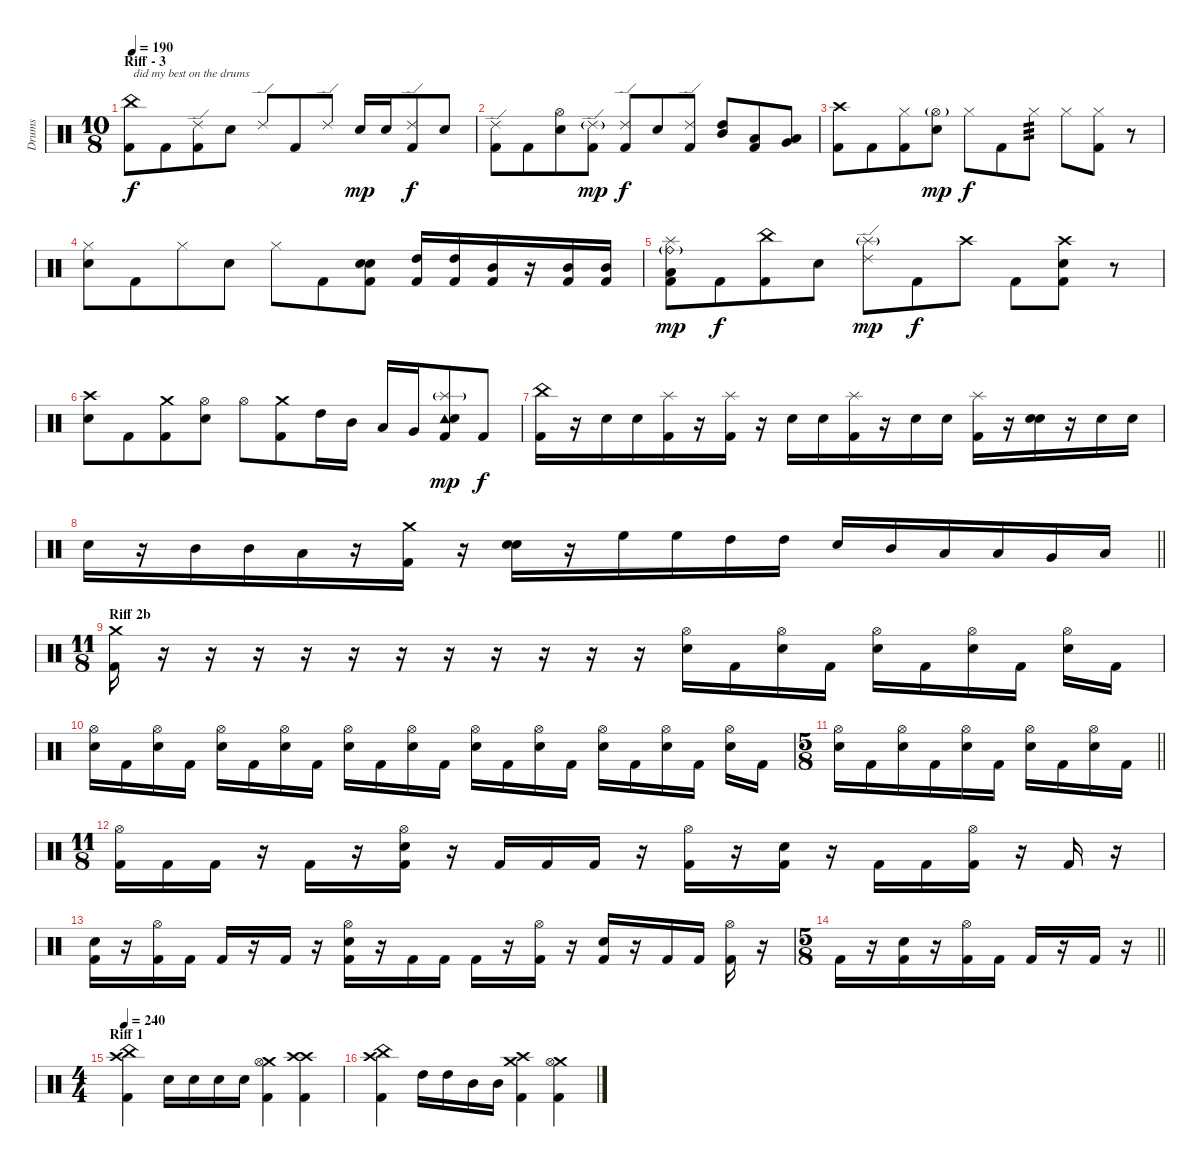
\track ("Drums" "Drums") {instrument percussion}
\staff {score}
\articulation defaults
\ts (10 8)
\section ("" "Riff - 3")
\tempo 190
\clef neutral
\ks c
("China (hit)" "Kick (hit) 2").8{txt "did my best on the drums" dy f} "Kick (hit) 2".8 ("Ride (edge) 2" "Kick (hit) 2").8 "Electric Snare (hit)".8 "Ride (edge) 2".8 "Kick (hit) 2".8 "Ride (edge) 2".8 "Electric Snare (hit)".16{dy mp} "Electric Snare (hit)".16 ("Ride (edge) 2" "Kick (hit) 2").8{dy f} "Electric Snare (hit)".8 |
("Ride (edge) 2" "Kick (hit) 2").8 "Kick (hit) 2".8 ("Hi-Hat (open)" "Electric Snare (hit)").8 ("Ride (edge) 2"{g} "Kick (hit) 2").8{dy mp} ("Ride (edge) 2" "Kick (hit) 2").8{dy f} "Electric Snare (hit)".8 ("Ride (edge) 2" "Kick (hit) 2").8 ("High Tom (hit)" "Mid Tom (hit)").8 ("Low Tom (hit)" "Kick (hit) 2").8 ("Very Low Tom (hit)" "Low Tom (hit)").8 |
("Crash high (hit)" "Kick (hit) 2").8 "Kick (hit) 2".8 ("Hi-Hat (closed)" "Kick (hit) 2").8 ("Hi-Hat (open)"{g} "Electric Snare (hit)").8{dy mp} "Hi-Hat (closed)".8{dy f} "Kick (hit) 2".8 "Hi-Hat (closed)".8{tp 3} "Hi-Hat (closed)".8 ("Hi-Hat (closed)" "Kick (hit) 2").8 r.8 |
("Hi-Hat (closed)" "Electric Snare (hit)").8 "Kick (hit) 2".8 "Hi-Hat (closed)".8 "Electric Snare (hit)".8 "Hi-Hat (closed)".8 "Kick (hit) 2".8 ("Electric Snare (hit)" "Electric Snare (hit)" "Kick (hit) 2").8{bu 120} ("High Tom (hit)" "Kick (hit) 2").16 ("High Tom (hit)" "Kick (hit) 2").16 ("Mid Tom (hit)" "Kick (hit) 2").16 r.16 ("Mid Tom (hit)" "Kick (hit) 2").16 ("Mid Tom (hit)" "Kick (hit) 2").16 |
("Splash (hit)" "Ride (bell)"{g} "Low Tom (hit)" "Kick (hit) 2").8{dy mp} "Kick (hit) 2".8{dy f} ("China (hit)" "Kick (hit) 2").8 "Electric Snare (hit)".8 ("Ride (edge) 2" "Splash (hit)"{g}).8{dy mp} "Kick (hit) 2".8{dy f} "Crash high (hit)".8 "Kick (hit) 2".8 ("Crash high (hit)" "Electric Snare (hit)" "Kick (hit) 2").8 r.8 |
("Crash high (hit)" "Electric Snare (hit)").8 "Kick (hit) 2".8 ("Crash medium (hit)" "Kick (hit) 2").8 ("Hi-Hat (open)" "Electric Snare (hit)").8 "Hi-Hat (open)".8 ("Crash medium (hit)" "Kick (hit) 2").8 "High Tom (hit)".16 "Mid Tom (hit)".16 "Low Tom (hit)".16 "Very Low Tom (hit)".16 ("Splash (hit)"{g} "Tambourine (hit)" "Electric Snare (hit)" "Kick (hit) 2").8{dy mp} "Kick (hit) 2".8{dy f} |
("China (hit)" "Kick (hit) 2").16 r.16 "Electric Snare (hit)".16 "Electric Snare (hit)".16 ("Splash (hit)" "Kick (hit) 2").16 r.16 ("Splash (hit)" "Kick (hit) 2").16 r.16 "Electric Snare (hit)".16 "Electric Snare (hit)".16 ("Splash (hit)" "Kick (hit) 2").16 r.16 "Electric Snare (hit)".16 "Electric Snare (hit)".16 ("Splash (hit)" "Kick (hit) 2").16 r.16 ("Electric Snare (hit)" "Electric Snare (hit)").16{bu 240} r.16 "Electric Snare (hit)".16 "Electric Snare (hit)".16 |
\barLineRight lightlight "Electric Snare (hit)".16
r.16 "Mid Tom (hit)".16 "Mid Tom (hit)".16 "Low Tom (hit)".16 r.16 ("Crash medium (hit)" "Kick (hit) 2").16 r.16 ("Electric Snare (hit)" "Electric Snare (hit)").16{bu 480} r.16 "High Floor Tom (hit)".16 "High Floor Tom (hit)".16 "High Tom (hit)".16 "High Tom (hit)".16 "Electric Snare (hit)".16 "Mid Tom (hit)".16 "Low Tom (hit)".16 "Low Tom (hit)".16 "Very Low Tom (hit)".16 "Low Floor Tom (hit)".16 |
\ts (11 8)
\section ("" "Riff 2b")
("Crash medium (hit)" "Kick (hit) 2").16 r.16 r.16 r.16 r.16 r.16 r.16 r.16 r.16 r.16 r.16 r.16 ("Hi-Hat (open)" "Electric Snare (hit)").16 "Kick (hit) 2".16 ("Hi-Hat (open)" "Electric Snare (hit)").16 "Kick (hit) 2".16 ("Hi-Hat (open)" "Electric Snare (hit)").16 "Kick (hit) 2".16 ("Hi-Hat (open)" "Electric Snare (hit)").16 "Kick (hit) 2".16 ("Hi-Hat (open)" "Electric Snare (hit)").16 "Kick (hit) 2".16 |
("Hi-Hat (open)" "Electric Snare (hit)").16 "Kick (hit) 2".16 ("Hi-Hat (open)" "Electric Snare (hit)").16 "Kick (hit) 2".16 ("Hi-Hat (open)" "Electric Snare (hit)").16 "Kick (hit) 2".16 ("Hi-Hat (open)" "Electric Snare (hit)").16 "Kick (hit) 2".16 ("Hi-Hat (open)" "Electric Snare (hit)").16 "Kick (hit) 2".16 ("Hi-Hat (open)" "Electric Snare (hit)").16 "Kick (hit) 2".16 ("Hi-Hat (open)" "Electric Snare (hit)").16 "Kick (hit) 2".16 ("Hi-Hat (open)" "Electric Snare (hit)").16 "Kick (hit) 2".16 ("Hi-Hat (open)" "Electric Snare (hit)").16 "Kick (hit) 2".16 ("Hi-Hat (open)" "Electric Snare (hit)").16 "Kick (hit) 2".16 ("Hi-Hat (open)" "Electric Snare (hit)").16 "Kick (hit) 2".16 |
\ts (5 8)
\barLineRight lightlight
("Hi-Hat (open)" "Electric Snare (hit)").16 "Kick (hit) 2".16 ("Hi-Hat (open)" "Electric Snare (hit)").16 "Kick (hit) 2".16 ("Hi-Hat (open)" "Electric Snare (hit)").16 "Kick (hit) 2".16 ("Hi-Hat (open)" "Electric Snare (hit)").16 "Kick (hit) 2".16 ("Hi-Hat (open)" "Electric Snare (hit)").16 "Kick (hit) 2".16 |
\ts (11 8)
("Hi-Hat (open)" "Kick (hit) 2").16 "Kick (hit) 2".16 "Kick (hit) 2".16 r.16 "Kick (hit) 2".16 r.16 ("Hi-Hat (open)" "Electric Snare (hit)" "Kick (hit) 2").16 r.16 "Kick (hit) 2".16 "Kick (hit) 2".16 "Kick (hit) 2".16 r.16 ("Hi-Hat (open)" "Kick (hit) 2").16 r.16 ("Electric Snare (hit)" "Kick (hit) 2").16 r.16 "Kick (hit) 2".16 "Kick (hit) 2".16 ("Hi-Hat (open)" "Kick (hit) 2").16 r.16 "Kick (hit) 2".16 r.16 |
("Electric Snare (hit)" "Kick (hit) 2").16 r.16 ("Hi-Hat (open)" "Kick (hit) 2").16 "Kick (hit) 2".16 "Kick (hit) 2".16 r.16 "Kick (hit) 2".16 r.16 ("Hi-Hat (open)" "Electric Snare (hit)" "Kick (hit) 2").16 r.16 "Kick (hit) 2".16 "Kick (hit) 2".16 "Kick (hit) 2".16 r.16 ("Hi-Hat (open)" "Kick (hit) 2").16 r.16 ("Electric Snare (hit)" "Kick (hit) 2").16 r.16 "Kick (hit) 2".16 "Kick (hit) 2".16 ("Hi-Hat (open)" "Kick (hit) 2").16 r.16 |
\ts (5 8)
\barLineRight lightlight "Kick (hit) 2".16
r.16 ("Electric Snare (hit)" "Kick (hit) 2").16 r.16 ("Hi-Hat (open)" "Kick (hit) 2").16 "Kick (hit) 2".16 "Kick (hit) 2".16 r.16 "Kick (hit) 2".16 r.16 |
\ts (4 4)
\section ("" "Riff 1")
\tempo 240
("China (hit)" "Crash high (hit)" "Kick (hit) 2").4 "Electric Snare (hit)".16 "Electric Snare (hit)".16 "Electric Snare (hit)".16 "Electric Snare (hit)".16 ("Crash medium (hit)" "Hi-Hat (open)" "Kick (hit) 2").4 ("Crash high (hit)" "Crash high (hit)" "Kick (hit) 2").4 |
("Crash high (hit)" "China (hit)" "Kick (hit) 2").4 "High Tom (hit)".16 "High Tom (hit)".16 "Mid Tom (hit)".16 "Mid Tom (hit)".16 ("Crash medium (hit)" "Crash high (hit)" "Kick (hit) 2").4 ("Crash medium (hit)" "Hi-Hat (open)" "Kick (hit) 2").4
